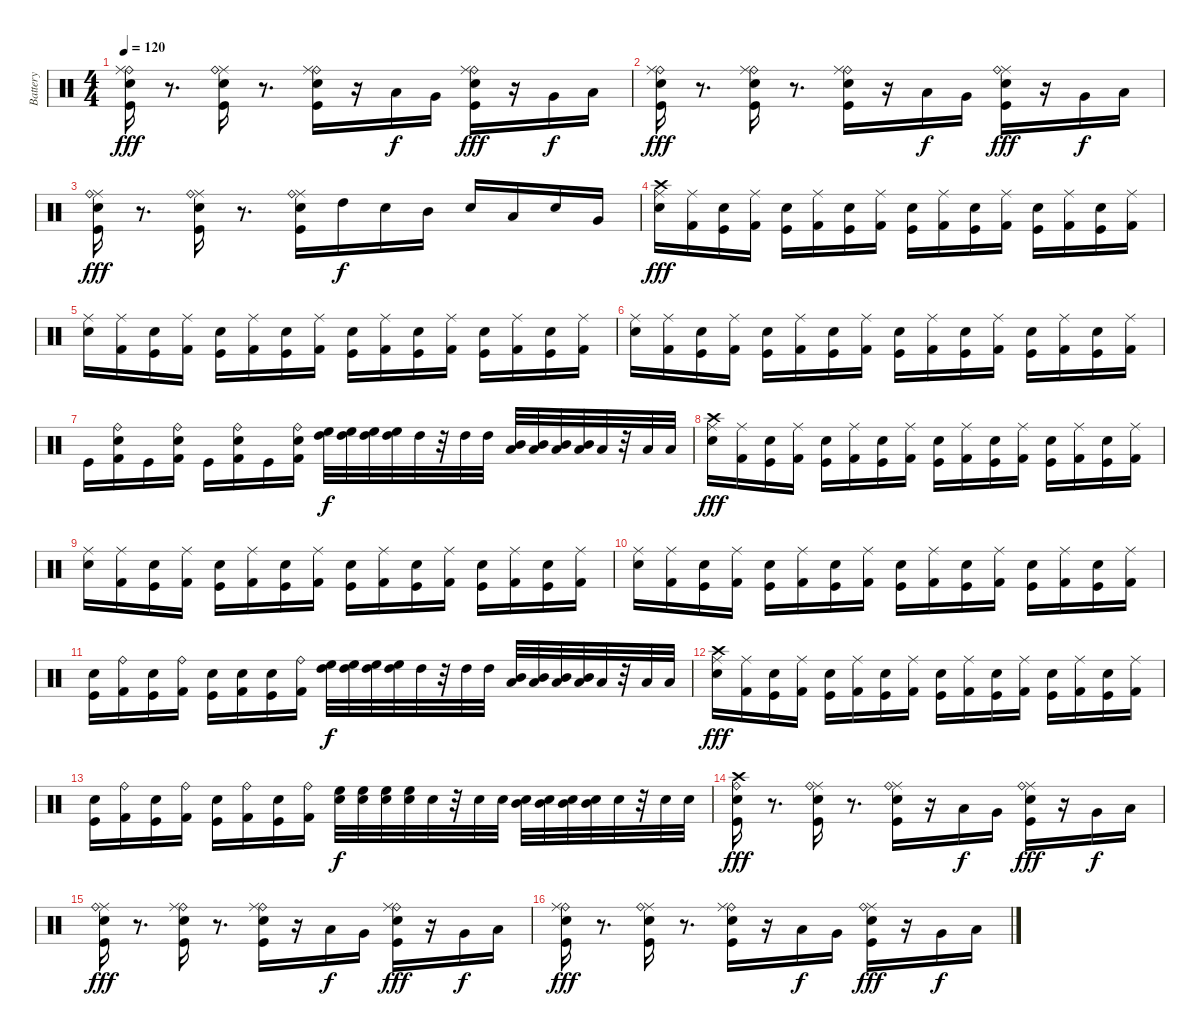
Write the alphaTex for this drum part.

\track ("Battery" "Battery") {instrument percussion}
\staff {score}
\articulation defaults
\ts (4 4)
\tempo 120
\clef neutral
\ks c
("Ride (bell)" "Ride (middle)" "Electric Snare (hit)" "Kick (hit)").16{dy fff} r.8{d} ("Ride (middle)" "Electric Snare (hit)" "Ride (bell)" "Kick (hit)").16 r.8{d} ("Ride (bell)" "Electric Snare (hit)" "Ride (middle)" "Kick (hit)").16 r.16 "Low Tom (hit)".16{dy f} "Very Low Tom (hit)".16 ("Ride (bell)" "Electric Snare (hit)" "Ride (middle)" "Kick (hit)").16{dy fff} r.16 "Very Low Tom (hit)".16{dy f} "Low Floor Tom (hit)".16 |
("Ride (bell)" "Ride (middle)" "Electric Snare (hit)" "Kick (hit)").16{dy fff} r.8{d} ("Ride (bell)" "Ride (middle)" "Electric Snare (hit)" "Kick (hit)").16 r.8{d} ("Ride (bell)" "Ride (middle)" "Electric Snare (hit)" "Kick (hit)").16 r.16 "Low Tom (hit)".16{dy f} "Very Low Tom (hit)".16 ("Electric Snare (hit)" "Ride (middle)" "Ride (bell)" "Kick (hit)").16{dy fff} r.16 "Very Low Tom (hit)".16{dy f} "Low Floor Tom (hit)".16 |
("Ride (middle)" "Electric Snare (hit)" "Ride (bell)" "Kick (hit)").16{dy fff} r.8{d} ("Ride (middle)" "Ride (bell)" "Electric Snare (hit)" "Kick (hit)").16 r.8{d} ("Electric Snare (hit)" "Ride (middle)" "Ride (bell)" "Kick (hit)").16 "High Tom (hit)".16{dy f} "Electric Snare (hit)".16 "Mid Tom (hit)".16 "Electric Snare (hit)".16 "Low Tom (hit)".16 "Electric Snare (hit)".16 "Very Low Tom (hit)".16 |
("Crash high (hit)" "Ride (middle)" "Electric Snare (hit)").16{dy fff} ("Ride (middle)" "Kick (hit) 2").16 ("Kick (hit)" "Electric Snare (hit)").16 ("Ride (middle)" "Kick (hit) 2").16 ("Kick (hit)" "Electric Snare (hit)").16 ("Ride (middle)" "Kick (hit) 2").16 ("Kick (hit)" "Electric Snare (hit)").16 ("Ride (middle)" "Kick (hit) 2").16 ("Kick (hit)" "Electric Snare (hit)").16 ("Ride (middle)" "Kick (hit) 2").16 ("Kick (hit)" "Electric Snare (hit)").16 ("Ride (middle)" "Kick (hit) 2").16 ("Kick (hit)" "Electric Snare (hit)").16 ("Ride (middle)" "Kick (hit) 2").16 ("Kick (hit)" "Electric Snare (hit)").16 ("Ride (middle)" "Kick (hit) 2").16 |
("Ride (middle)" "Electric Snare (hit)").16 ("Ride (middle)" "Kick (hit) 2").16 ("Kick (hit)" "Electric Snare (hit)").16 ("Ride (middle)" "Kick (hit) 2").16 ("Kick (hit)" "Electric Snare (hit)").16 ("Ride (middle)" "Kick (hit) 2").16 ("Kick (hit)" "Electric Snare (hit)").16 ("Ride (middle)" "Kick (hit) 2").16 ("Kick (hit)" "Electric Snare (hit)").16 ("Ride (middle)" "Kick (hit) 2").16 ("Kick (hit)" "Electric Snare (hit)").16 ("Ride (middle)" "Kick (hit) 2").16 ("Kick (hit)" "Electric Snare (hit)").16 ("Ride (middle)" "Kick (hit) 2").16 ("Kick (hit)" "Electric Snare (hit)").16 ("Ride (middle)" "Kick (hit) 2").16 |
("Ride (middle)" "Electric Snare (hit)").16 ("Ride (middle)" "Kick (hit) 2").16 ("Kick (hit)" "Electric Snare (hit)").16 ("Ride (middle)" "Kick (hit) 2").16 ("Kick (hit)" "Electric Snare (hit)").16 ("Ride (middle)" "Kick (hit) 2").16 ("Kick (hit)" "Electric Snare (hit)").16 ("Ride (middle)" "Kick (hit) 2").16 ("Kick (hit)" "Electric Snare (hit)").16 ("Ride (middle)" "Kick (hit) 2").16 ("Kick (hit)" "Electric Snare (hit)").16 ("Ride (middle)" "Kick (hit) 2").16 ("Kick (hit)" "Electric Snare (hit)").16 ("Ride (middle)" "Kick (hit) 2").16 ("Kick (hit)" "Electric Snare (hit)").16 ("Ride (middle)" "Kick (hit) 2").16 |
"Kick (hit)".16 ("Ride (bell)" "Electric Snare (hit)" "Kick (hit) 2").16 "Kick (hit)".16 ("Ride (bell)" "Electric Snare (hit)" "Kick (hit) 2").16 "Kick (hit)".16 ("Electric Snare (hit)" "Ride (bell)" "Kick (hit) 2").16 "Kick (hit)".16 ("Ride (bell)" "Electric Snare (hit)" "Kick (hit) 2").16 ("High Tom (hit)" "High Floor Tom (hit)").32{dy f} ("High Tom (hit)" "High Floor Tom (hit)").32 ("High Floor Tom (hit)" "High Tom (hit)").32 ("High Tom (hit)" "High Floor Tom (hit)").32 "High Tom (hit)".32 r.32 "High Tom (hit)".32 "High Tom (hit)".32 ("Mid Tom (hit)" "Low Tom (hit)").32 ("Low Tom (hit)" "Mid Tom (hit)").32 ("Low Tom (hit)" "Mid Tom (hit)").32 ("Mid Tom (hit)" "Low Tom (hit)").32 "Low Tom (hit)".32 r.32 "Low Tom (hit)".32 "Low Tom (hit)".32 |
("Crash high (hit)" "Ride (middle)" "Electric Snare (hit)").16{dy fff} ("Ride (middle)" "Kick (hit) 2").16 ("Kick (hit)" "Electric Snare (hit)").16 ("Ride (middle)" "Kick (hit) 2").16 ("Kick (hit)" "Electric Snare (hit)").16 ("Ride (middle)" "Kick (hit) 2").16 ("Kick (hit)" "Electric Snare (hit)").16 ("Ride (middle)" "Kick (hit) 2").16 ("Kick (hit)" "Electric Snare (hit)").16 ("Ride (middle)" "Kick (hit) 2").16 ("Kick (hit)" "Electric Snare (hit)").16 ("Ride (middle)" "Kick (hit) 2").16 ("Kick (hit)" "Electric Snare (hit)").16 ("Ride (middle)" "Kick (hit) 2").16 ("Kick (hit)" "Electric Snare (hit)").16 ("Ride (middle)" "Kick (hit) 2").16 |
("Ride (middle)" "Electric Snare (hit)").16 ("Ride (middle)" "Kick (hit) 2").16 ("Kick (hit)" "Electric Snare (hit)").16 ("Ride (middle)" "Kick (hit) 2").16 ("Kick (hit)" "Electric Snare (hit)").16 ("Ride (middle)" "Kick (hit) 2").16 ("Kick (hit)" "Electric Snare (hit)").16 ("Ride (middle)" "Kick (hit) 2").16 ("Kick (hit)" "Electric Snare (hit)").16 ("Ride (middle)" "Kick (hit) 2").16 ("Kick (hit)" "Electric Snare (hit)").16 ("Ride (middle)" "Kick (hit) 2").16 ("Kick (hit)" "Electric Snare (hit)").16 ("Ride (middle)" "Kick (hit) 2").16 ("Kick (hit)" "Electric Snare (hit)").16 ("Ride (middle)" "Kick (hit) 2").16 |
("Ride (middle)" "Electric Snare (hit)").16 ("Ride (middle)" "Kick (hit) 2").16 ("Kick (hit)" "Electric Snare (hit)").16 ("Ride (middle)" "Kick (hit) 2").16 ("Kick (hit)" "Electric Snare (hit)").16 ("Ride (middle)" "Kick (hit) 2").16 ("Kick (hit)" "Electric Snare (hit)").16 ("Ride (middle)" "Kick (hit) 2").16 ("Kick (hit)" "Electric Snare (hit)").16 ("Ride (middle)" "Kick (hit) 2").16 ("Kick (hit)" "Electric Snare (hit)").16 ("Ride (middle)" "Kick (hit) 2").16 ("Kick (hit)" "Electric Snare (hit)").16 ("Ride (middle)" "Kick (hit) 2").16 ("Kick (hit)" "Electric Snare (hit)").16 ("Ride (middle)" "Kick (hit) 2").16 |
("Kick (hit)" "Electric Snare (hit)").16 ("Ride (bell)" "Kick (hit) 2").16 ("Kick (hit)" "Electric Snare (hit)").16 ("Ride (bell)" "Kick (hit) 2").16 ("Kick (hit)" "Electric Snare (hit)").16 ("Electric Snare (hit)" "Kick (hit) 2").16 ("Kick (hit)" "Electric Snare (hit)").16 ("Ride (bell)" "Kick (hit) 2").16 ("High Tom (hit)" "High Floor Tom (hit)").32{dy f} ("High Tom (hit)" "High Floor Tom (hit)").32 ("High Floor Tom (hit)" "High Tom (hit)").32 ("High Tom (hit)" "High Floor Tom (hit)").32 "High Tom (hit)".32 r.32 "High Tom (hit)".32 "High Tom (hit)".32 ("Mid Tom (hit)" "Low Tom (hit)").32 ("Low Tom (hit)" "Mid Tom (hit)").32 ("Low Tom (hit)" "Mid Tom (hit)").32 ("Mid Tom (hit)" "Low Tom (hit)").32 "Low Tom (hit)".32 r.32 "Low Tom (hit)".32 "Low Tom (hit)".32 |
("Crash high (hit)" "Ride (middle)" "Electric Snare (hit)").16{dy fff} ("Ride (middle)" "Kick (hit) 2").16 ("Kick (hit)" "Electric Snare (hit)").16 ("Ride (middle)" "Kick (hit) 2").16 ("Kick (hit)" "Electric Snare (hit)").16 ("Ride (middle)" "Kick (hit) 2").16 ("Kick (hit)" "Electric Snare (hit)").16 ("Ride (middle)" "Kick (hit) 2").16 ("Kick (hit)" "Electric Snare (hit)").16 ("Ride (middle)" "Kick (hit) 2").16 ("Kick (hit)" "Electric Snare (hit)").16 ("Ride (middle)" "Kick (hit) 2").16 ("Kick (hit)" "Electric Snare (hit)").16 ("Ride (middle)" "Kick (hit) 2").16 ("Kick (hit)" "Electric Snare (hit)").16 ("Ride (middle)" "Kick (hit) 2").16 |
("Electric Snare (hit)" "Kick (hit)").16 ("Ride (bell)" "Kick (hit) 2").16 ("Electric Snare (hit)" "Kick (hit)").16 ("Ride (bell)" "Kick (hit) 2").16 ("Electric Snare (hit)" "Kick (hit)").16 ("Ride (bell)" "Kick (hit) 2").16 ("Electric Snare (hit)" "Kick (hit)").16 ("Ride (bell)" "Kick (hit) 2").16 ("Electric Snare (hit)" "High Floor Tom (hit)").32{dy f} ("Electric Snare (hit)" "High Floor Tom (hit)").32 ("High Floor Tom (hit)" "Electric Snare (hit)").32 ("Electric Snare (hit)" "High Floor Tom (hit)").32 "Electric Snare (hit)".32 r.32 "Electric Snare (hit)".32 "Electric Snare (hit)".32 ("Electric Snare (hit)" "Mid Tom (hit)").32 ("Electric Snare (hit)" "Mid Tom (hit)").32 ("Mid Tom (hit)" "Electric Snare (hit)").32 ("Mid Tom (hit)" "Electric Snare (hit)").32 "Electric Snare (hit)".32 r.32 "Electric Snare (hit)".32 "Electric Snare (hit)".32 |
("Ride (bell)" "Electric Snare (hit)" "Crash high (hit)" "Kick (hit)").16{dy fff} r.8{d} ("Ride (middle)" "Electric Snare (hit)" "Ride (bell)" "Kick (hit)").16 r.8{d} ("Ride (middle)" "Ride (bell)" "Electric Snare (hit)" "Kick (hit)").16 r.16 "Low Tom (hit)".16{dy f} "Very Low Tom (hit)".16 ("Ride (middle)" "Ride (bell)" "Electric Snare (hit)" "Kick (hit)").16{dy fff} r.16 "Very Low Tom (hit)".16{dy f} "Low Floor Tom (hit)".16 |
("Ride (middle)" "Ride (bell)" "Electric Snare (hit)" "Kick (hit)").16{dy fff} r.8{d} ("Ride (bell)" "Electric Snare (hit)" "Ride (middle)" "Kick (hit)").16 r.8{d} ("Ride (bell)" "Ride (middle)" "Electric Snare (hit)" "Kick (hit)").16 r.16 "Low Tom (hit)".16{dy f} "Very Low Tom (hit)".16 ("Electric Snare (hit)" "Ride (bell)" "Ride (middle)" "Kick (hit)").16{dy fff} r.16 "Very Low Tom (hit)".16{dy f} "Low Floor Tom (hit)".16 |
("Ride (bell)" "Electric Snare (hit)" "Ride (middle)" "Kick (hit)").16{dy fff} r.8{d} ("Ride (middle)" "Electric Snare (hit)" "Ride (bell)" "Kick (hit)").16 r.8{d} ("Ride (bell)" "Ride (middle)" "Electric Snare (hit)" "Kick (hit)").16 r.16 "Low Tom (hit)".16{dy f} "Very Low Tom (hit)".16 ("Electric Snare (hit)" "Ride (middle)" "Ride (bell)" "Kick (hit)").16{dy fff} r.16 "Very Low Tom (hit)".16{dy f} "Low Floor Tom (hit)".16
